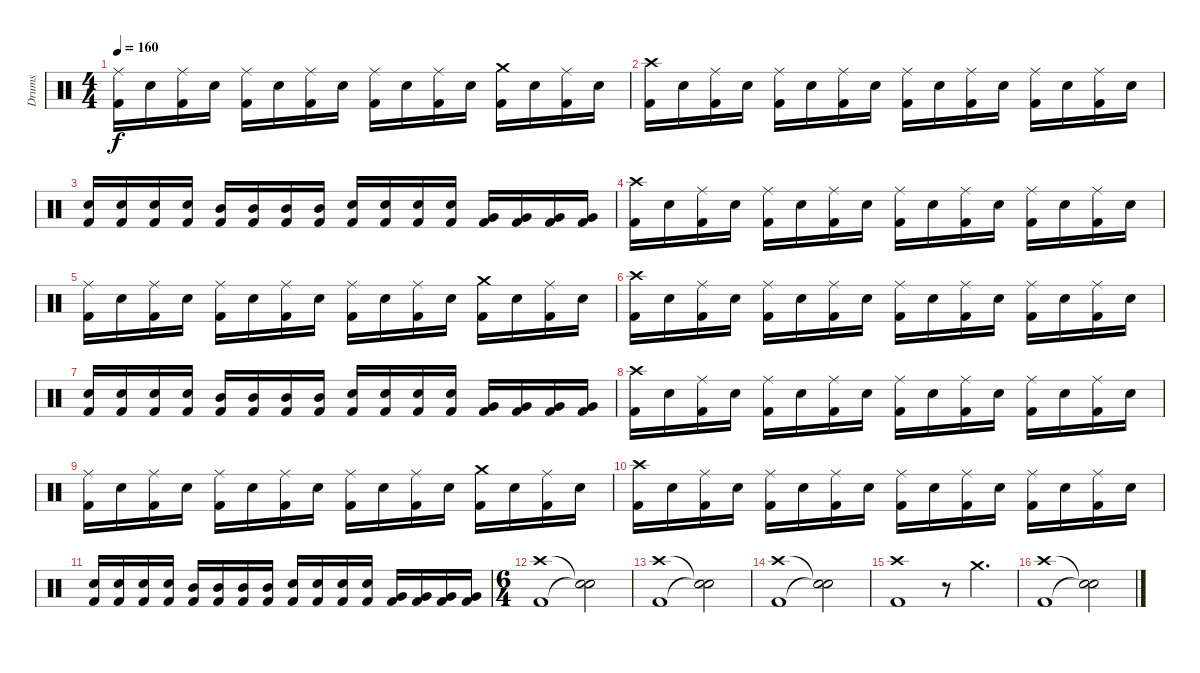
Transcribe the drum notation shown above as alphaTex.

\track ("Drums" "Drums") {instrument percussion}
\staff {score}
\articulation defaults
\ts (4 4)
\tempo 160
\clef neutral
\ks c
("Ride (middle)" "Kick (hit) 2").16{dy f} "Snare (hit) 2".16 ("Ride (middle)" "Kick (hit) 2").16 "Snare (hit) 2".16 ("Ride (middle)" "Kick (hit) 2").16 "Snare (hit) 2".16 ("Ride (middle)" "Kick (hit) 2").16 "Snare (hit) 2".16 ("Ride (middle)" "Kick (hit) 2").16 "Snare (hit) 2".16 ("Ride (middle)" "Kick (hit) 2").16 "Snare (hit) 2".16 ("Crash medium (hit)" "Kick (hit) 2").16 "Snare (hit) 2".16 ("Ride (middle)" "Kick (hit) 2").16 "Snare (hit) 2".16 |
("Crash high (hit)" "Kick (hit) 2").16 "Snare (hit) 2".16 ("Ride (middle)" "Kick (hit) 2").16 "Snare (hit) 2".16 ("Ride (middle)" "Kick (hit) 2").16 "Snare (hit) 2".16 ("Ride (middle)" "Kick (hit) 2").16 "Snare (hit) 2".16 ("Ride (middle)" "Kick (hit) 2").16 "Snare (hit) 2".16 ("Ride (middle)" "Kick (hit) 2").16 "Snare (hit) 2".16 ("Ride (middle)" "Kick (hit) 2").16 "Snare (hit) 2".16 ("Ride (middle)" "Kick (hit) 2").16 "Snare (hit) 2".16 |
("Snare (hit) 2" "Kick (hit) 2").16 ("Snare (hit) 2" "Kick (hit) 2").16 ("Snare (hit) 2" "Kick (hit) 2").16 ("Snare (hit) 2" "Kick (hit) 2").16 ("Mid Tom (hit)" "Kick (hit) 2").16 ("Mid Tom (hit)" "Kick (hit) 2").16 ("Mid Tom (hit)" "Kick (hit) 2").16 ("Mid Tom (hit)" "Kick (hit) 2").16 ("Snare (hit) 2" "Kick (hit) 2").16 ("Snare (hit) 2" "Kick (hit) 2").16 ("Snare (hit) 2" "Kick (hit) 2").16 ("Snare (hit) 2" "Kick (hit) 2").16 ("Very Low Tom (hit)" "Kick (hit) 2").16 ("Very Low Tom (hit)" "Kick (hit) 2").16 ("Very Low Tom (hit)" "Kick (hit) 2").16 ("Very Low Tom (hit)" "Kick (hit) 2").16 |
("Crash high (hit)" "Kick (hit) 2").16 "Snare (hit) 2".16 ("Ride (middle)" "Kick (hit) 2").16 "Snare (hit) 2".16 ("Ride (middle)" "Kick (hit) 2").16 "Snare (hit) 2".16 ("Ride (middle)" "Kick (hit) 2").16 "Snare (hit) 2".16 ("Ride (middle)" "Kick (hit) 2").16 "Snare (hit) 2".16 ("Ride (middle)" "Kick (hit) 2").16 "Snare (hit) 2".16 ("Ride (middle)" "Kick (hit) 2").16 "Snare (hit) 2".16 ("Ride (middle)" "Kick (hit) 2").16 "Snare (hit) 2".16 |
("Ride (middle)" "Kick (hit) 2").16 "Snare (hit) 2".16 ("Ride (middle)" "Kick (hit) 2").16 "Snare (hit) 2".16 ("Ride (middle)" "Kick (hit) 2").16 "Snare (hit) 2".16 ("Ride (middle)" "Kick (hit) 2").16 "Snare (hit) 2".16 ("Ride (middle)" "Kick (hit) 2").16 "Snare (hit) 2".16 ("Ride (middle)" "Kick (hit) 2").16 "Snare (hit) 2".16 ("Crash medium (hit)" "Kick (hit) 2").16 "Snare (hit) 2".16 ("Ride (middle)" "Kick (hit) 2").16 "Snare (hit) 2".16 |
("Crash high (hit)" "Kick (hit) 2").16 "Snare (hit) 2".16 ("Ride (middle)" "Kick (hit) 2").16 "Snare (hit) 2".16 ("Ride (middle)" "Kick (hit) 2").16 "Snare (hit) 2".16 ("Ride (middle)" "Kick (hit) 2").16 "Snare (hit) 2".16 ("Ride (middle)" "Kick (hit) 2").16 "Snare (hit) 2".16 ("Ride (middle)" "Kick (hit) 2").16 "Snare (hit) 2".16 ("Ride (middle)" "Kick (hit) 2").16 "Snare (hit) 2".16 ("Ride (middle)" "Kick (hit) 2").16 "Snare (hit) 2".16 |
("Snare (hit) 2" "Kick (hit) 2").16 ("Snare (hit) 2" "Kick (hit) 2").16 ("Snare (hit) 2" "Kick (hit) 2").16 ("Snare (hit) 2" "Kick (hit) 2").16 ("Mid Tom (hit)" "Kick (hit) 2").16 ("Mid Tom (hit)" "Kick (hit) 2").16 ("Mid Tom (hit)" "Kick (hit) 2").16 ("Mid Tom (hit)" "Kick (hit) 2").16 ("Snare (hit) 2" "Kick (hit) 2").16 ("Snare (hit) 2" "Kick (hit) 2").16 ("Snare (hit) 2" "Kick (hit) 2").16 ("Snare (hit) 2" "Kick (hit) 2").16 ("Very Low Tom (hit)" "Kick (hit) 2").16 ("Very Low Tom (hit)" "Kick (hit) 2").16 ("Very Low Tom (hit)" "Kick (hit) 2").16 ("Very Low Tom (hit)" "Kick (hit) 2").16 |
("Crash high (hit)" "Kick (hit) 2").16 "Snare (hit) 2".16 ("Ride (middle)" "Kick (hit) 2").16 "Snare (hit) 2".16 ("Ride (middle)" "Kick (hit) 2").16 "Snare (hit) 2".16 ("Ride (middle)" "Kick (hit) 2").16 "Snare (hit) 2".16 ("Ride (middle)" "Kick (hit) 2").16 "Snare (hit) 2".16 ("Ride (middle)" "Kick (hit) 2").16 "Snare (hit) 2".16 ("Ride (middle)" "Kick (hit) 2").16 "Snare (hit) 2".16 ("Ride (middle)" "Kick (hit) 2").16 "Snare (hit) 2".16 |
("Ride (middle)" "Kick (hit) 2").16 "Snare (hit) 2".16 ("Ride (middle)" "Kick (hit) 2").16 "Snare (hit) 2".16 ("Ride (middle)" "Kick (hit) 2").16 "Snare (hit) 2".16 ("Ride (middle)" "Kick (hit) 2").16 "Snare (hit) 2".16 ("Ride (middle)" "Kick (hit) 2").16 "Snare (hit) 2".16 ("Ride (middle)" "Kick (hit) 2").16 "Snare (hit) 2".16 ("Crash medium (hit)" "Kick (hit) 2").16 "Snare (hit) 2".16 ("Ride (middle)" "Kick (hit) 2").16 "Snare (hit) 2".16 |
("Crash high (hit)" "Kick (hit) 2").16 "Snare (hit) 2".16 ("Ride (middle)" "Kick (hit) 2").16 "Snare (hit) 2".16 ("Ride (middle)" "Kick (hit) 2").16 "Snare (hit) 2".16 ("Ride (middle)" "Kick (hit) 2").16 "Snare (hit) 2".16 ("Ride (middle)" "Kick (hit) 2").16 "Snare (hit) 2".16 ("Ride (middle)" "Kick (hit) 2").16 "Snare (hit) 2".16 ("Ride (middle)" "Kick (hit) 2").16 "Snare (hit) 2".16 ("Ride (middle)" "Kick (hit) 2").16 "Snare (hit) 2".16 |
("Snare (hit) 2" "Kick (hit) 2").16 ("Snare (hit) 2" "Kick (hit) 2").16 ("Snare (hit) 2" "Kick (hit) 2").16 ("Snare (hit) 2" "Kick (hit) 2").16 ("Mid Tom (hit)" "Kick (hit) 2").16 ("Mid Tom (hit)" "Kick (hit) 2").16 ("Mid Tom (hit)" "Kick (hit) 2").16 ("Mid Tom (hit)" "Kick (hit) 2").16 ("Snare (hit) 2" "Kick (hit) 2").16 ("Snare (hit) 2" "Kick (hit) 2").16 ("Snare (hit) 2" "Kick (hit) 2").16 ("Snare (hit) 2" "Kick (hit) 2").16 ("Very Low Tom (hit)" "Kick (hit) 2").16 ("Very Low Tom (hit)" "Kick (hit) 2").16 ("Very Low Tom (hit)" "Kick (hit) 2").16 ("Very Low Tom (hit)" "Kick (hit) 2").16 |
\ts (6 4)
("Crash high (hit)" "Kick (hit) 2").1 ("Snare (hit)"{t} "Snare (hit)"{t}).2 |
("Crash high (hit)" "Kick (hit) 2").1 ("Snare (hit)"{t} "Snare (hit)"{t}).2 |
("Crash high (hit)" "Kick (hit) 2").1 ("Snare (hit)"{t} "Snare (hit)"{t}).2 |
("Crash high (hit)" "Kick (hit) 2").1 r.8 "Crash medium (hit)".4{d} |
("Crash high (hit)" "Kick (hit) 2").1 ("Snare (hit)"{t} "Snare (hit)"{t}).2
